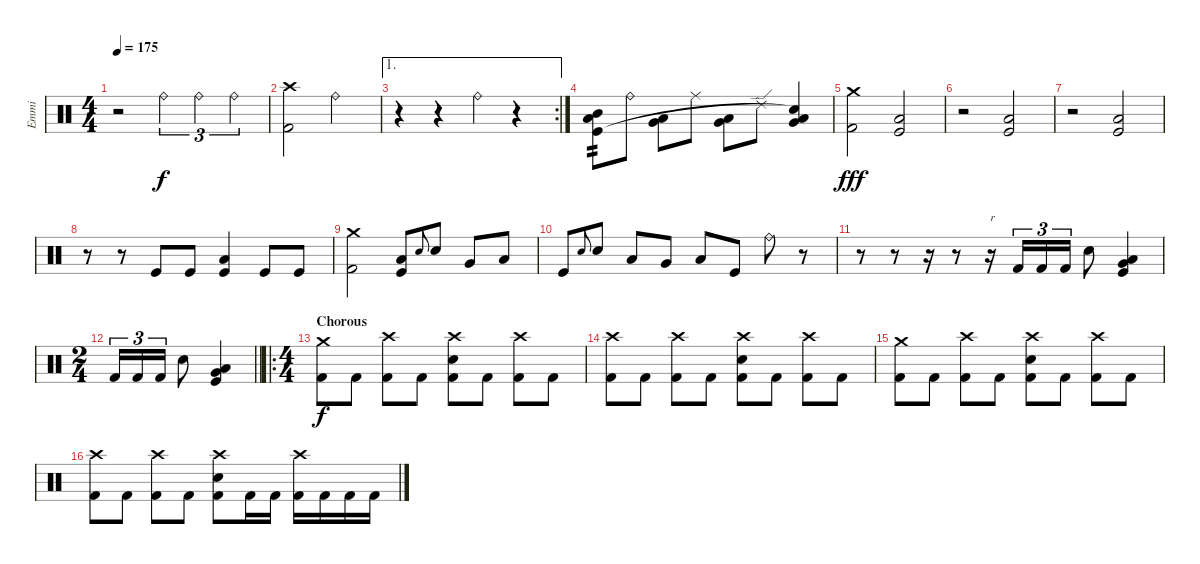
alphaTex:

\track ("Emmi" "Emmi") {instrument percussion}
\staff {score}
\articulation defaults
\ts (4 4)
\tempo 175
\clef neutral
\ks c
r.2{dy f} "Ride (bell)".4{tu (3 2)} "Ride (bell)".4{tu (3 2)} "Ride (bell)".4{tu (3 2)} |
("Crash high (hit)" "Kick (hit) 2").2 "Ride (bell)".2 |
\ae 1
\rc 2
r.4 r.4 "Ride (bell)".4 r.4 |
("Low Tom (hit)" "Mid Tom (hit)" "Kick (hit)").8{tp 2} "Ride (bell)".8 ("Very Low Tom (hit)" "Low Tom (hit)").8 "Ride (middle)".8 ("Low Floor Tom (hit)" "Very Low Tom (hit)").8 "Ride (edge) 2".8 ("Very Low Tom (hit)" "Low Floor Tom (hit)" "Snare (hit)"{t}).4 |
("Crash medium (hit)" "Kick (hit) 2").2{dy fff} ("Low Floor Tom (hit)" "Kick (hit)").2 |
r.2 ("Low Floor Tom (hit)" "Kick (hit)").2 |
r.2 ("Low Floor Tom (hit)" "Kick (hit)").2 |
r.8 r.8 "Kick (hit)".8 "Kick (hit)".8 ("Low Floor Tom (hit)" "Kick (hit)").4 "Kick (hit)".8 "Kick (hit)".8 |
("Crash medium (hit)" "Kick (hit) 2").2 ("Low Floor Tom (hit)" "Kick (hit)").8 "Electric Snare (hit)".8{gr onbeat} "Electric Snare (hit)".8 "Very Low Tom (hit)".8 "Low Floor Tom (hit)".8 |
"Kick (hit)".8 "Electric Snare (hit)".8{gr onbeat} "Electric Snare (hit)".8 "Low Tom (hit)".8 "Very Low Tom (hit)".8 "Low Floor Tom (hit)".8 "Kick (hit)".8 "Ride (bell)".8 r.8 |
r.8 r.8 r.16 r.8 r.16{txt "r"} "Kick (hit) 2".16{tu (3 2)} "Kick (hit) 2".16{tu (3 2)} "Kick (hit) 2".16{tu (3 2)} "Electric Snare (hit)".8 ("Low Tom (hit)" "Very Low Tom (hit)" "Kick (hit)").4 |
\ts (2 4)
\barLineRight lightlight "Kick (hit) 2".16{tu (3 2)} "Kick (hit) 2".16{tu (3 2)} "Kick (hit) 2".16{tu (3 2)} "Electric Snare (hit)".8
("Kick (hit)" "Very Low Tom (hit)" "Low Floor Tom (hit)").4 |
\ro
\ts (4 4)
\section ("" "Chorous")
("Crash medium (hit)" "Kick (hit) 2").8{dy f} "Kick (hit) 2".8 ("Crash high (hit)" "Kick (hit) 2").8 "Kick (hit) 2".8 ("Crash high (hit)" "Electric Snare (hit)" "Kick (hit) 2").8 "Kick (hit) 2".8 ("Crash high (hit)" "Kick (hit) 2").8 "Kick (hit) 2".8 |
("Crash high (hit)" "Kick (hit) 2").8 "Kick (hit) 2".8 ("Crash high (hit)" "Kick (hit) 2").8 "Kick (hit) 2".8 ("Crash high (hit)" "Electric Snare (hit)" "Kick (hit) 2").8 "Kick (hit) 2".8 ("Crash high (hit)" "Kick (hit) 2").8 "Kick (hit) 2".8 |
("Crash medium (hit)" "Kick (hit) 2").8 "Kick (hit) 2".8 ("Crash high (hit)" "Kick (hit) 2").8 "Kick (hit) 2".8 ("Crash high (hit)" "Electric Snare (hit)" "Kick (hit) 2").8 "Kick (hit) 2".8 ("Crash high (hit)" "Kick (hit) 2").8 "Kick (hit) 2".8 |
("Crash high (hit)" "Kick (hit) 2").8 "Kick (hit) 2".8 ("Crash high (hit)" "Kick (hit) 2").8 "Kick (hit) 2".8 ("Crash high (hit)" "Electric Snare (hit)" "Kick (hit) 2").8 "Kick (hit) 2".16 "Kick (hit) 2".16 ("Crash high (hit)" "Kick (hit) 2").16 "Kick (hit) 2".16 "Kick (hit) 2".16 "Kick (hit) 2".16
